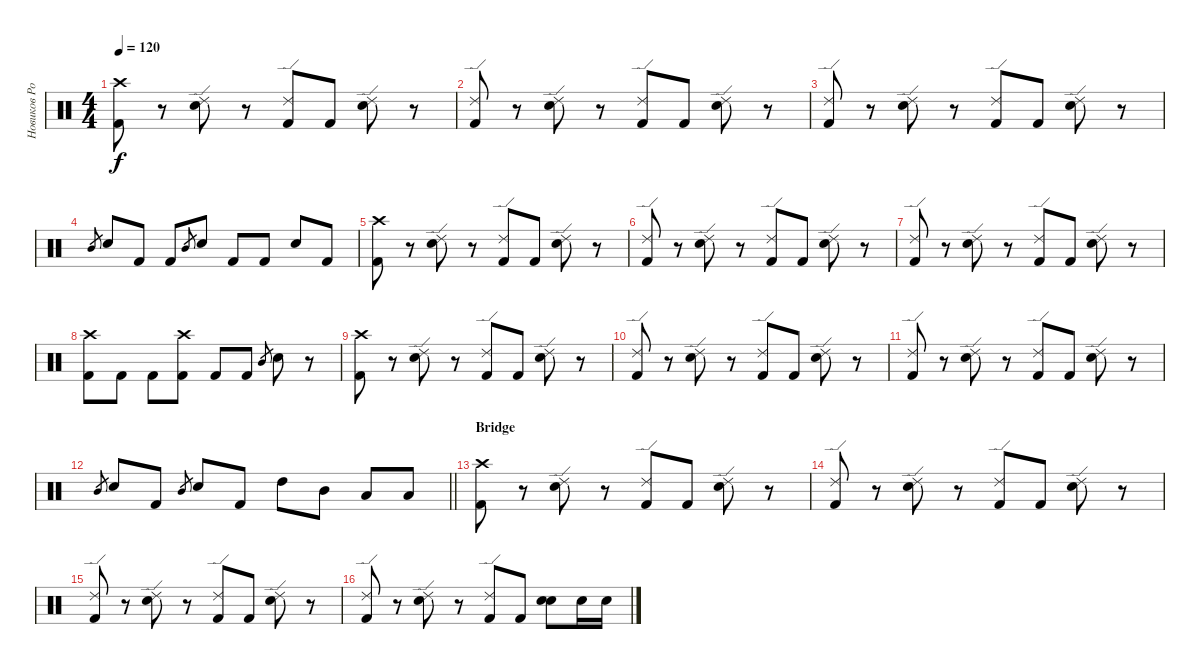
\track ("Новиков Роман  ( Ударные )" "Новиков Ро") {instrument percussion}
\staff {score}
\articulation defaults
\ts (4 4)
\tempo 120
\clef neutral
\ks c
("Crash high (hit)" "Kick (hit) 2").8{dy f} r.8 ("Ride (edge) 2" "Electric Snare (hit)").8 r.8 ("Ride (edge) 2" "Kick (hit) 2").8 "Kick (hit) 2".8 ("Ride (edge) 2" "Electric Snare (hit)").8 r.8 |
("Ride (edge) 2" "Kick (hit) 2").8 r.8 ("Ride (edge) 2" "Electric Snare (hit)").8 r.8 ("Ride (edge) 2" "Kick (hit) 2").8 "Kick (hit) 2".8 ("Ride (edge) 2" "Electric Snare (hit)").8 r.8 |
("Ride (edge) 2" "Kick (hit) 2").8 r.8 ("Ride (edge) 2" "Electric Snare (hit)").8 r.8 ("Ride (edge) 2" "Kick (hit) 2").8 "Kick (hit) 2".8 ("Ride (edge) 2" "Electric Snare (hit)").8 r.8 |
"Mid Tom (hit)"{h}.8{gr} "Snare (hit) 2".8 "Kick (hit) 2".8 "Kick (hit) 2".8 "Mid Tom (hit)"{h}.8{gr} "Snare (hit) 2".8 "Kick (hit) 2".8 "Kick (hit) 2".8 "Snare (hit) 2".8 "Kick (hit) 2".8 |
("Crash high (hit)" "Kick (hit) 2").8 r.8 ("Ride (edge) 2" "Electric Snare (hit)").8 r.8 ("Ride (edge) 2" "Kick (hit) 2").8 "Kick (hit) 2".8 ("Ride (edge) 2" "Electric Snare (hit)").8 r.8 |
("Ride (edge) 2" "Kick (hit) 2").8 r.8 ("Ride (edge) 2" "Electric Snare (hit)").8 r.8 ("Ride (edge) 2" "Kick (hit) 2").8 "Kick (hit) 2".8 ("Ride (edge) 2" "Electric Snare (hit)").8 r.8 |
("Ride (edge) 2" "Kick (hit) 2").8 r.8 ("Ride (edge) 2" "Electric Snare (hit)").8 r.8 ("Ride (edge) 2" "Kick (hit) 2").8 "Kick (hit) 2".8 ("Ride (edge) 2" "Electric Snare (hit)").8 r.8 |
("Crash high (hit)" "Kick (hit) 2").8 "Kick (hit) 2".8 "Kick (hit) 2".8 ("Kick (hit) 2" "Crash high (hit)").8 "Kick (hit) 2".8 "Kick (hit) 2".8 "Mid Tom (hit)"{h}.8{gr} "Snare (hit) 2".8 r.8 |
("Crash high (hit)" "Kick (hit) 2").8 r.8 ("Ride (edge) 2" "Electric Snare (hit)").8 r.8 ("Ride (edge) 2" "Kick (hit) 2").8 "Kick (hit) 2".8 ("Ride (edge) 2" "Electric Snare (hit)").8 r.8 |
("Ride (edge) 2" "Kick (hit) 2").8 r.8 ("Ride (edge) 2" "Electric Snare (hit)").8 r.8 ("Ride (edge) 2" "Kick (hit) 2").8 "Kick (hit) 2".8 ("Ride (edge) 2" "Electric Snare (hit)").8 r.8 |
("Ride (edge) 2" "Kick (hit) 2").8 r.8 ("Ride (edge) 2" "Electric Snare (hit)").8 r.8 ("Ride (edge) 2" "Kick (hit) 2").8 "Kick (hit) 2".8 ("Ride (edge) 2" "Electric Snare (hit)").8 r.8 |
\barLineRight lightlight "Mid Tom (hit)"{h}.8{gr} "Snare (hit) 2".8 "Kick (hit) 2".8 "Mid Tom (hit)"{h}.8{gr} "Snare (hit) 2".8 "Kick (hit) 2".8 "High Tom (hit)".8 "Mid Tom (hit)".8 "Low Tom (hit)".8 "Low Floor Tom (hit)".8
|
\section ("" "Bridge")
("Crash high (hit)" "Kick (hit) 2").8 r.8 ("Ride (edge) 2" "Electric Snare (hit)").8 r.8 ("Ride (edge) 2" "Kick (hit) 2").8 "Kick (hit) 2".8 ("Ride (edge) 2" "Electric Snare (hit)").8 r.8 |
("Ride (edge) 2" "Kick (hit) 2").8 r.8 ("Ride (edge) 2" "Electric Snare (hit)").8 r.8 ("Ride (edge) 2" "Kick (hit) 2").8 "Kick (hit) 2".8 ("Ride (edge) 2" "Electric Snare (hit)").8 r.8 |
("Ride (edge) 2" "Kick (hit) 2").8 r.8 ("Ride (edge) 2" "Electric Snare (hit)").8 r.8 ("Ride (edge) 2" "Kick (hit) 2").8 "Kick (hit) 2".8 ("Ride (edge) 2" "Electric Snare (hit)").8 r.8 |
("Ride (edge) 2" "Kick (hit) 2").8 r.8 ("Ride (edge) 2" "Electric Snare (hit)").8 r.8 ("Ride (edge) 2" "Kick (hit) 2").8 "Kick (hit) 2".8 ("Snare (hit) 2" "Electric Snare (hit)").8 "Snare (hit) 2".16 "Snare (hit) 2".16
